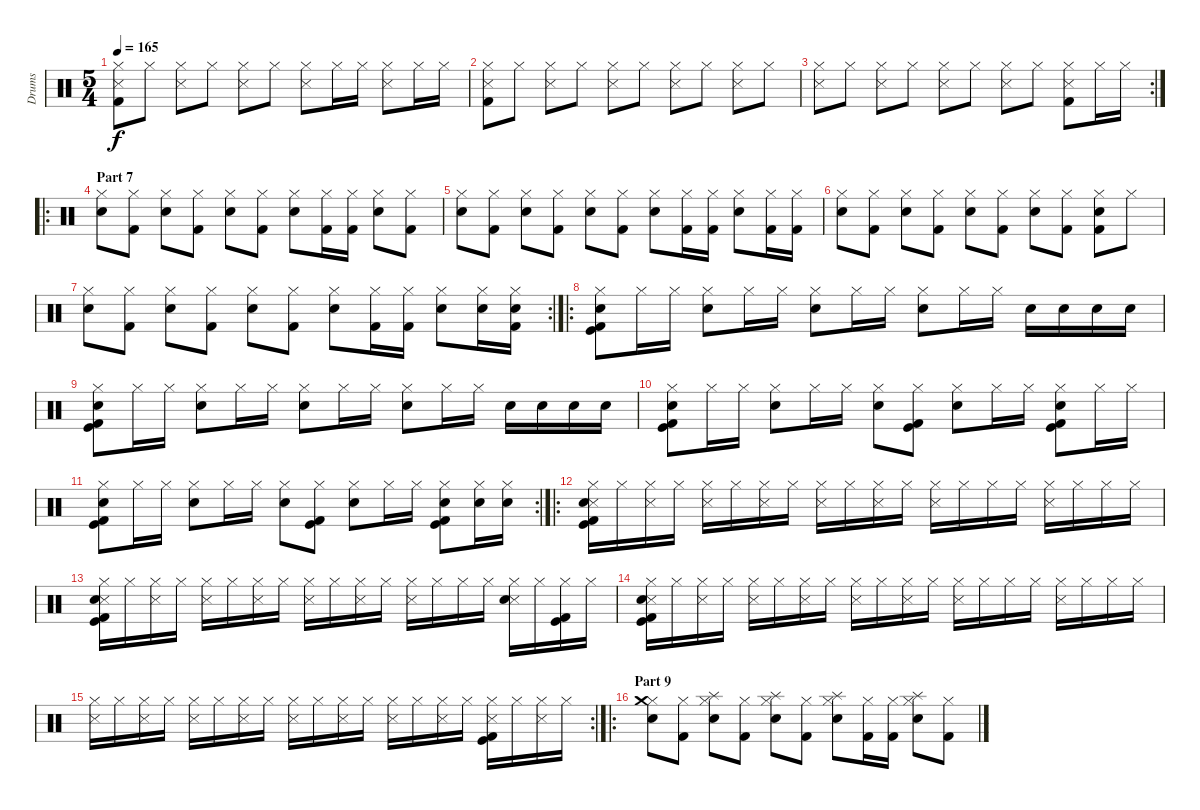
\track ("Drums" "Drums") {instrument percussion}
\staff {score}
\articulation defaults
\ts (5 4)
\tempo 165
\clef neutral
\ks c
("Hi-Hat (closed)" "Snare (side stick) 3" "Kick (hit) 2").8{dy f} "Hi-Hat (closed)".8 ("Hi-Hat (closed)" "Snare (side stick) 3").8 "Hi-Hat (closed)".8 ("Hi-Hat (closed)" "Snare (side stick) 3").8 "Hi-Hat (closed)".8 ("Hi-Hat (closed)" "Snare (side stick) 3").8 "Hi-Hat (closed)".16 "Hi-Hat (closed)".16 ("Hi-Hat (closed)" "Snare (side stick) 3").8 "Hi-Hat (closed)".16 "Hi-Hat (closed)".16 |
("Hi-Hat (closed)" "Snare (side stick) 3" "Kick (hit) 2").8 "Hi-Hat (closed)".8 ("Hi-Hat (closed)" "Snare (side stick) 3").8 "Hi-Hat (closed)".8 ("Hi-Hat (closed)" "Snare (side stick) 3").8 "Hi-Hat (closed)".8 ("Hi-Hat (closed)" "Snare (side stick) 3").8 "Hi-Hat (closed)".8 ("Hi-Hat (closed)" "Snare (side stick) 3").8 "Hi-Hat (closed)".8 |
\rc 2
("Hi-Hat (closed)" "Snare (side stick) 3").8 "Hi-Hat (closed)".8 ("Hi-Hat (closed)" "Snare (side stick) 3").8 "Hi-Hat (closed)".8 ("Hi-Hat (closed)" "Snare (side stick) 3").8 "Hi-Hat (closed)".8 ("Hi-Hat (closed)" "Snare (side stick) 3").8 "Hi-Hat (closed)".8 ("Hi-Hat (closed)" "Snare (side stick) 3" "Kick (hit) 2").8 "Hi-Hat (closed)".16 "Hi-Hat (closed)".16 |
\ro
\section ("" "Part 7")
("Hi-Hat (closed)" "Electric Snare (hit)").8 ("Hi-Hat (closed)" "Kick (hit) 2").8 ("Hi-Hat (closed)" "Electric Snare (hit)").8 ("Hi-Hat (closed)" "Kick (hit) 2").8 ("Hi-Hat (closed)" "Electric Snare (hit)").8 ("Hi-Hat (closed)" "Kick (hit) 2").8 ("Hi-Hat (closed)" "Electric Snare (hit)").8 ("Hi-Hat (closed)" "Kick (hit) 2").16 ("Hi-Hat (closed)" "Kick (hit) 2").16 ("Hi-Hat (closed)" "Electric Snare (hit)").8 ("Hi-Hat (closed)" "Kick (hit) 2").8 |
("Hi-Hat (closed)" "Electric Snare (hit)").8 ("Hi-Hat (closed)" "Kick (hit) 2").8 ("Hi-Hat (closed)" "Electric Snare (hit)").8 ("Hi-Hat (closed)" "Kick (hit) 2").8 ("Hi-Hat (closed)" "Electric Snare (hit)").8 ("Hi-Hat (closed)" "Kick (hit) 2").8 ("Hi-Hat (closed)" "Electric Snare (hit)").8 ("Hi-Hat (closed)" "Kick (hit) 2").16 ("Hi-Hat (closed)" "Kick (hit) 2").16 ("Hi-Hat (closed)" "Electric Snare (hit)").8 ("Hi-Hat (closed)" "Kick (hit) 2").16 ("Hi-Hat (closed)" "Kick (hit) 2").16 |
("Hi-Hat (closed)" "Electric Snare (hit)").8 ("Hi-Hat (closed)" "Kick (hit) 2").8 ("Hi-Hat (closed)" "Electric Snare (hit)").8 ("Hi-Hat (closed)" "Kick (hit) 2").8 ("Hi-Hat (closed)" "Electric Snare (hit)").8 ("Hi-Hat (closed)" "Kick (hit) 2").8 ("Hi-Hat (closed)" "Electric Snare (hit)").8 ("Hi-Hat (closed)" "Kick (hit) 2").8 ("Hi-Hat (closed)" "Electric Snare (hit)" "Kick (hit) 2").8 "Hi-Hat (closed)".8 |
\rc 2
("Hi-Hat (closed)" "Electric Snare (hit)").8 ("Hi-Hat (closed)" "Kick (hit) 2").8 ("Hi-Hat (closed)" "Electric Snare (hit)").8 ("Hi-Hat (closed)" "Kick (hit) 2").8 ("Hi-Hat (closed)" "Electric Snare (hit)").8 ("Hi-Hat (closed)" "Kick (hit) 2").8 ("Hi-Hat (closed)" "Electric Snare (hit)").8 ("Hi-Hat (closed)" "Kick (hit) 2").16 ("Hi-Hat (closed)" "Kick (hit) 2").16 ("Hi-Hat (closed)" "Electric Snare (hit)").8 ("Hi-Hat (closed)" "Electric Snare (hit)").16 ("Hi-Hat (closed)" "Electric Snare (hit)" "Kick (hit) 2").16 |
\ro
("Hi-Hat (closed)" "Electric Snare (hit)" "Kick (hit)" "Kick (hit) 2").8 "Hi-Hat (closed)".16 "Hi-Hat (closed)".16 ("Hi-Hat (closed)" "Electric Snare (hit)").8 "Hi-Hat (closed)".16 "Hi-Hat (closed)".16 ("Hi-Hat (closed)" "Electric Snare (hit)").8 "Hi-Hat (closed)".16 "Hi-Hat (closed)".16 ("Hi-Hat (closed)" "Electric Snare (hit)").8 "Hi-Hat (closed)".16 "Hi-Hat (closed)".16 "Electric Snare (hit)".16 "Electric Snare (hit)".16 "Electric Snare (hit)".16 "Electric Snare (hit)".16 |
("Hi-Hat (closed)" "Electric Snare (hit)" "Kick (hit)" "Kick (hit) 2").8 "Hi-Hat (closed)".16 "Hi-Hat (closed)".16 ("Hi-Hat (closed)" "Electric Snare (hit)").8 "Hi-Hat (closed)".16 "Hi-Hat (closed)".16 ("Hi-Hat (closed)" "Electric Snare (hit)").8 "Hi-Hat (closed)".16 "Hi-Hat (closed)".16 ("Hi-Hat (closed)" "Electric Snare (hit)").8 "Hi-Hat (closed)".16 "Hi-Hat (closed)".16 "Electric Snare (hit)".16 "Electric Snare (hit)".16 "Electric Snare (hit)".16 "Electric Snare (hit)".16 |
("Hi-Hat (closed)" "Electric Snare (hit)" "Kick (hit)" "Kick (hit) 2").8 "Hi-Hat (closed)".16 "Hi-Hat (closed)".16 ("Hi-Hat (closed)" "Electric Snare (hit)").8 "Hi-Hat (closed)".16 "Hi-Hat (closed)".16 ("Hi-Hat (closed)" "Electric Snare (hit)").8 ("Hi-Hat (closed)" "Kick (hit)" "Kick (hit) 2").8 ("Hi-Hat (closed)" "Electric Snare (hit)").8 "Hi-Hat (closed)".16 "Hi-Hat (closed)".16 ("Hi-Hat (closed)" "Electric Snare (hit)" "Kick (hit)" "Kick (hit) 2").8 "Hi-Hat (closed)".16 "Hi-Hat (closed)".16 |
\rc 2
("Hi-Hat (closed)" "Electric Snare (hit)" "Kick (hit)" "Kick (hit) 2").8 "Hi-Hat (closed)".16 "Hi-Hat (closed)".16 ("Hi-Hat (closed)" "Electric Snare (hit)").8 "Hi-Hat (closed)".16 "Hi-Hat (closed)".16 ("Hi-Hat (closed)" "Electric Snare (hit)").8 ("Hi-Hat (closed)" "Kick (hit)" "Kick (hit) 2").8 ("Hi-Hat (closed)" "Electric Snare (hit)").8 "Hi-Hat (closed)".16 "Hi-Hat (closed)".16 ("Hi-Hat (closed)" "Electric Snare (hit)" "Kick (hit)" "Kick (hit) 2").8 ("Hi-Hat (closed)" "Electric Snare (hit)").16 ("Hi-Hat (closed)" "Electric Snare (hit)").16 |
\ro
("Hi-Hat (closed)" "Snare (side stick) 3" "Metronome (bell)" "Kick (hit)" "Kick (hit) 2").16 "Hi-Hat (closed)".16 ("Hi-Hat (closed)" "Snare (side stick) 3").16 "Hi-Hat (closed)".16 ("Hi-Hat (closed)" "Snare (side stick) 3").16 "Hi-Hat (closed)".16 ("Hi-Hat (closed)" "Snare (side stick) 3").16 "Hi-Hat (closed)".16 ("Hi-Hat (closed)" "Snare (side stick) 3").16 "Hi-Hat (closed)".16 ("Hi-Hat (closed)" "Snare (side stick) 3").16 "Hi-Hat (closed)".16 ("Hi-Hat (closed)" "Snare (side stick) 3").16 "Hi-Hat (closed)".16 "Hi-Hat (closed)".16 "Hi-Hat (closed)".16 ("Hi-Hat (closed)" "Snare (side stick) 3").16 "Hi-Hat (closed)".16 "Hi-Hat (closed)".16 "Hi-Hat (closed)".16 |
("Hi-Hat (closed)" "Snare (side stick) 3" "Metronome (bell)" "Kick (hit)" "Kick (hit) 2").16 "Hi-Hat (closed)".16 ("Hi-Hat (closed)" "Snare (side stick) 3").16 "Hi-Hat (closed)".16 ("Hi-Hat (closed)" "Snare (side stick) 3").16 "Hi-Hat (closed)".16 ("Hi-Hat (closed)" "Snare (side stick) 3").16 "Hi-Hat (closed)".16 ("Hi-Hat (closed)" "Snare (side stick) 3").16 "Hi-Hat (closed)".16 ("Hi-Hat (closed)" "Snare (side stick) 3").16 "Hi-Hat (closed)".16 ("Hi-Hat (closed)" "Snare (side stick) 3").16 "Hi-Hat (closed)".16 "Hi-Hat (closed)".16 "Hi-Hat (closed)".16 ("Hi-Hat (closed)" "Snare (side stick) 3" "Metronome (bell)").16 "Hi-Hat (closed)".16 ("Hi-Hat (closed)" "Kick (hit)" "Kick (hit) 2").16 "Hi-Hat (closed)".16 |
("Hi-Hat (closed)" "Snare (side stick) 3" "Metronome (bell)" "Kick (hit)" "Kick (hit) 2").16 "Hi-Hat (closed)".16 ("Hi-Hat (closed)" "Snare (side stick) 3").16 "Hi-Hat (closed)".16 ("Hi-Hat (closed)" "Snare (side stick) 3").16 "Hi-Hat (closed)".16 ("Hi-Hat (closed)" "Snare (side stick) 3").16 "Hi-Hat (closed)".16 ("Hi-Hat (closed)" "Snare (side stick) 3").16 "Hi-Hat (closed)".16 ("Hi-Hat (closed)" "Snare (side stick) 3").16 "Hi-Hat (closed)".16 ("Hi-Hat (closed)" "Snare (side stick) 3").16 "Hi-Hat (closed)".16 "Hi-Hat (closed)".16 "Hi-Hat (closed)".16 ("Hi-Hat (closed)" "Snare (side stick) 3").16 "Hi-Hat (closed)".16 "Hi-Hat (closed)".16 "Hi-Hat (closed)".16 |
\rc 2
("Hi-Hat (closed)" "Snare (side stick) 3").16 "Hi-Hat (closed)".16 ("Hi-Hat (closed)" "Snare (side stick) 3").16 "Hi-Hat (closed)".16 ("Hi-Hat (closed)" "Snare (side stick) 3").16 "Hi-Hat (closed)".16 ("Hi-Hat (closed)" "Snare (side stick) 3").16 "Hi-Hat (closed)".16 ("Hi-Hat (closed)" "Snare (side stick) 3").16 "Hi-Hat (closed)".16 ("Hi-Hat (closed)" "Snare (side stick) 3").16 "Hi-Hat (closed)".16 ("Hi-Hat (closed)" "Snare (side stick) 3").16 "Hi-Hat (closed)".16 ("Hi-Hat (closed)" "Snare (side stick) 3").16 "Hi-Hat (closed)".16 ("Hi-Hat (closed)" "Snare (side stick) 3" "Kick (hit)" "Kick (hit) 2").16 "Hi-Hat (closed)".16 ("Hi-Hat (closed)" "Snare (side stick) 3").16 "Hi-Hat (closed)".16 |
\ro
\section ("" "Part 9")
("Hi-Hat (closed)" "Crash medium (hit)" "Electric Snare (hit)").8 ("Hi-Hat (closed)" "Kick (hit) 2").8 ("Hi-Hat (closed)" "Splash (hit)" "Electric Snare (hit)").8 ("Hi-Hat (closed)" "Kick (hit) 2").8 ("Hi-Hat (closed)" "Splash (hit)" "Electric Snare (hit)").8 ("Hi-Hat (closed)" "Kick (hit) 2").8 ("Hi-Hat (closed)" "Splash (hit)" "Electric Snare (hit)").8 ("Hi-Hat (closed)" "Kick (hit) 2").16 ("Hi-Hat (closed)" "Kick (hit) 2").16 ("Hi-Hat (closed)" "Splash (hit)" "Electric Snare (hit)").8 ("Hi-Hat (closed)" "Kick (hit) 2").8
